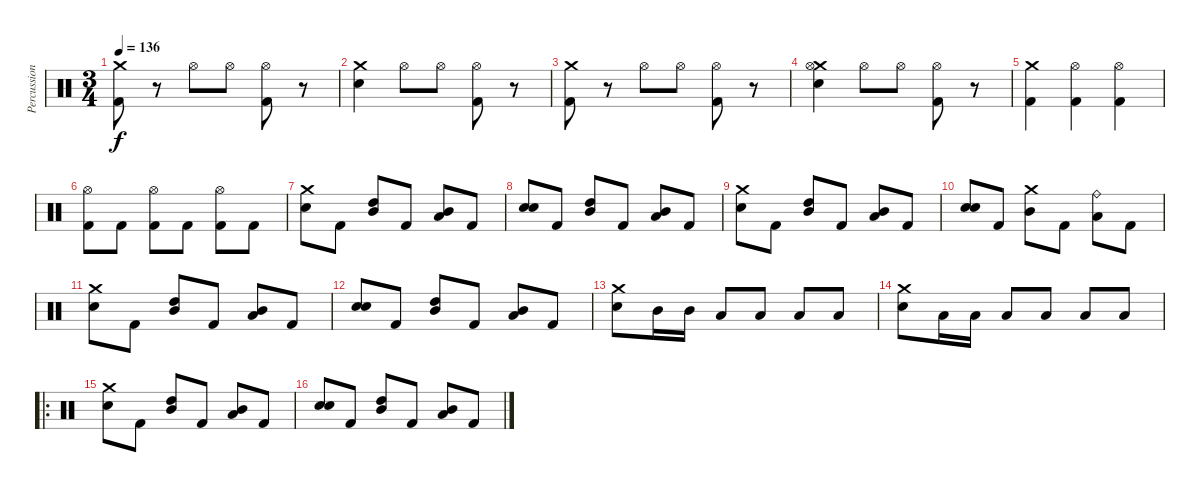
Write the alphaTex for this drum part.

\track ("Percussion" "Percussion") {instrument percussion}
\staff {score}
\articulation defaults
\ts (3 4)
\tempo 136
\clef neutral
\ks c
("Crash medium (hit)" "Kick (hit) 2").8{dy f} r.8 "Hi-Hat (open)".8 "Hi-Hat (open)".8 ("Hi-Hat (open)" "Kick (hit) 2").8 r.8 |
("Crash medium (hit)" "Electric Snare (hit)").4 "Hi-Hat (open)".8 "Hi-Hat (open)".8 ("Hi-Hat (open)" "Kick (hit) 2").8 r.8 |
("Crash medium (hit)" "Kick (hit) 2").8 r.8 "Hi-Hat (open)".8 "Hi-Hat (open)".8 ("Hi-Hat (open)" "Kick (hit) 2").8 r.8 |
("Crash medium (hit)" "Hi-Hat (open)" "Electric Snare (hit)").4 "Hi-Hat (open)".8 "Hi-Hat (open)".8 ("Hi-Hat (open)" "Kick (hit) 2").8 r.8 |
("Crash medium (hit)" "Kick (hit) 2").4 ("Hi-Hat (open)" "Kick (hit) 2").4 ("Hi-Hat (open)" "Kick (hit) 2").4 |
("Hi-Hat (open)" "Kick (hit) 2").8 "Kick (hit) 2".8 ("Hi-Hat (open)" "Kick (hit) 2").8 "Kick (hit) 2".8 ("Hi-Hat (open)" "Kick (hit) 2").8 "Kick (hit) 2".8 |
("Crash medium (hit)" "Electric Snare (hit)").8 "Kick (hit) 2".8 ("High Tom (hit)" "Mid Tom (hit)").8 "Kick (hit) 2".8 ("Mid Tom (hit)" "Low Tom (hit)").8 "Kick (hit) 2".8 |
("Electric Snare (hit)" "Electric Snare (hit)").8 "Kick (hit) 2".8 ("High Tom (hit)" "Mid Tom (hit)").8 "Kick (hit) 2".8 ("Mid Tom (hit)" "Low Tom (hit)").8 "Kick (hit) 2".8 |
("Crash medium (hit)" "Electric Snare (hit)").8 "Kick (hit) 2".8 ("High Tom (hit)" "Mid Tom (hit)").8 "Kick (hit) 2".8 ("Mid Tom (hit)" "Low Tom (hit)").8 "Kick (hit) 2".8 |
("Electric Snare (hit)" "Electric Snare (hit)").8 "Kick (hit) 2".8 ("Crash medium (hit)" "Mid Tom (hit)").8 "Kick (hit) 2".8 ("Ride (bell)" "Low Tom (hit)").8 "Kick (hit) 2".8 |
("Crash medium (hit)" "Electric Snare (hit)").8 "Kick (hit) 2".8 ("High Tom (hit)" "Mid Tom (hit)").8 "Kick (hit) 2".8 ("Mid Tom (hit)" "Low Tom (hit)").8 "Kick (hit) 2".8 |
("Electric Snare (hit)" "Electric Snare (hit)").8 "Kick (hit) 2".8 ("High Tom (hit)" "Mid Tom (hit)").8 "Kick (hit) 2".8 ("Mid Tom (hit)" "Low Tom (hit)").8 "Kick (hit) 2".8 |
("Crash medium (hit)" "Electric Snare (hit)").8 "Mid Tom (hit)".16 "Mid Tom (hit)".16 "Low Tom (hit)".8 "Low Tom (hit)".8 "Low Tom (hit)".8 "Low Tom (hit)".8 |
("Crash medium (hit)" "Electric Snare (hit)").8 "Low Tom (hit)".16 "Low Tom (hit)".16 "Low Tom (hit)".8 "Low Tom (hit)".8 "Low Tom (hit)".8 "Low Tom (hit)".8 |
\ro
("Crash medium (hit)" "Electric Snare (hit)").8 "Kick (hit) 2".8 ("High Tom (hit)" "Mid Tom (hit)").8 "Kick (hit) 2".8 ("Mid Tom (hit)" "Low Tom (hit)").8 "Kick (hit) 2".8 |
("Electric Snare (hit)" "Electric Snare (hit)").8 "Kick (hit) 2".8 ("High Tom (hit)" "Mid Tom (hit)").8 "Kick (hit) 2".8 ("Mid Tom (hit)" "Low Tom (hit)").8 "Kick (hit) 2".8
